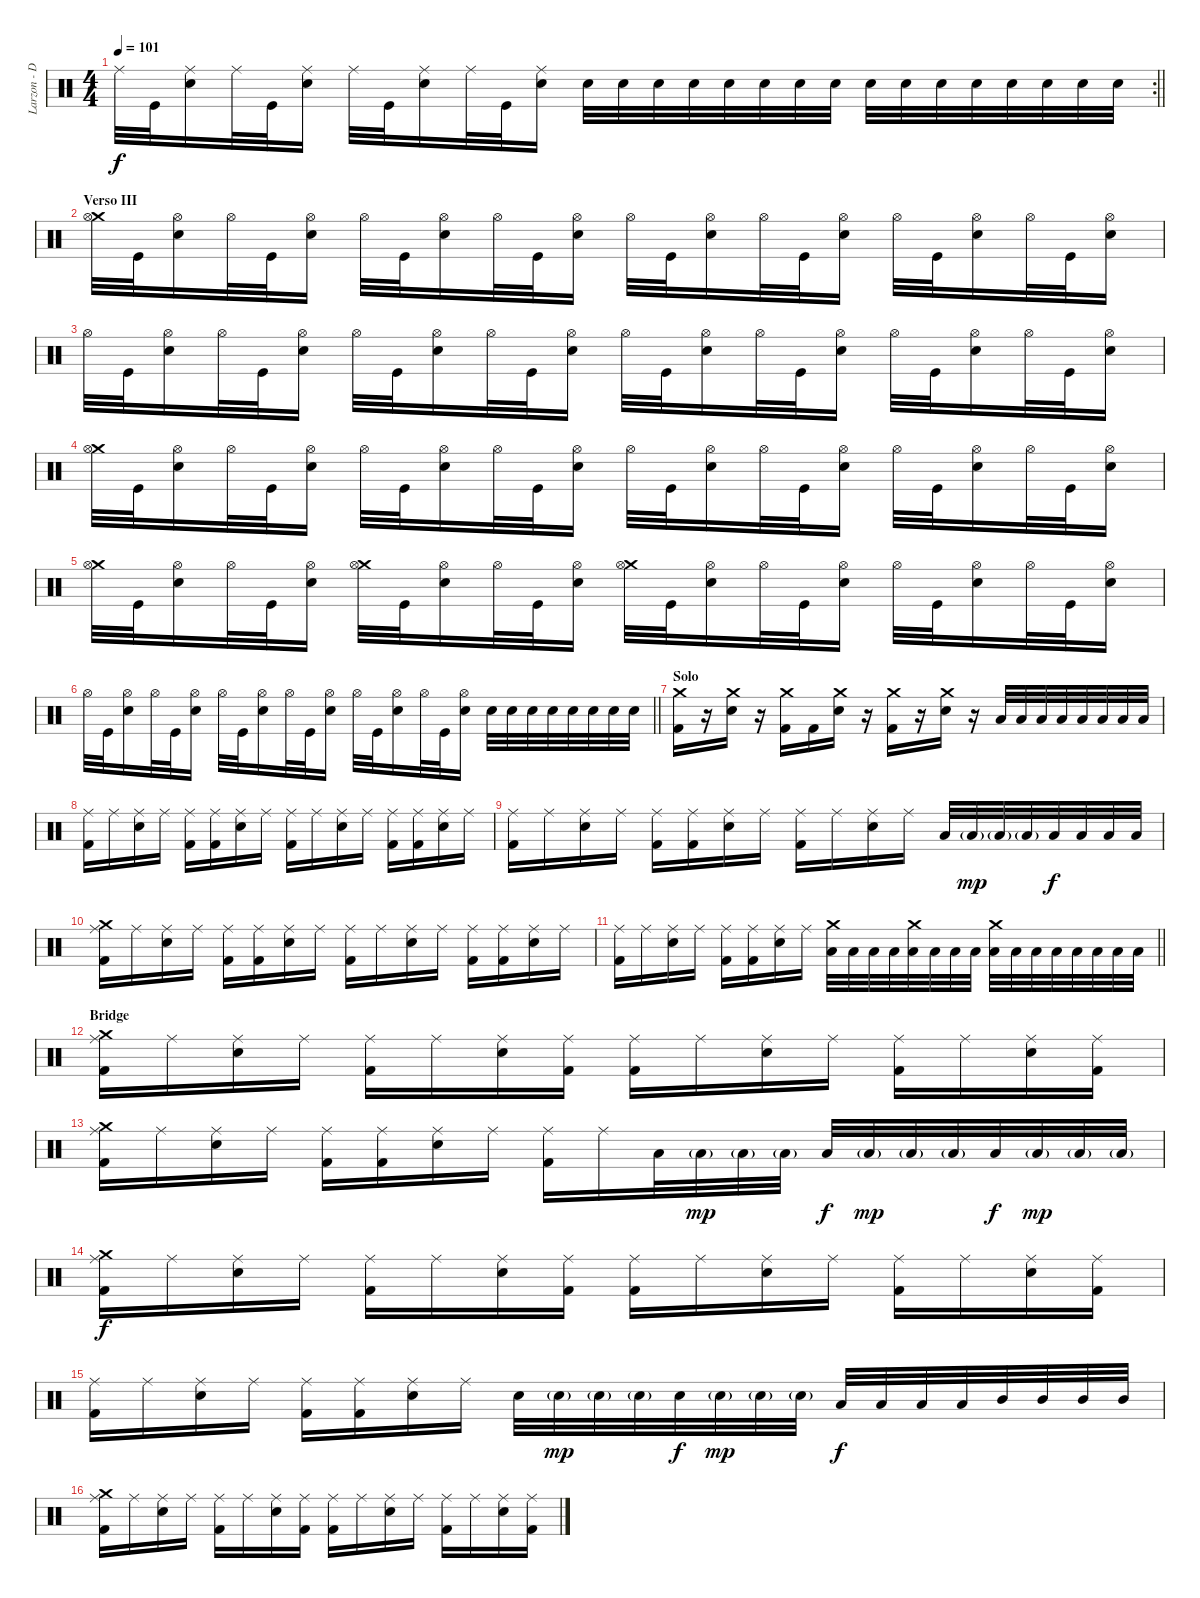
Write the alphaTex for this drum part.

\track ("Larzon - Drums" "Larzon - D") {instrument percussion}
\staff {score}
\articulation defaults
\rc 2
\ts (4 4)
\tempo 101
\clef neutral
\barLineRight lightlight
\ks c "Ride (middle)".32{dy f} "Kick (hit)".32
("Electric Snare (hit)" "Ride (middle)").16 "Ride (middle)".32 "Kick (hit)".32 ("Electric Snare (hit)" "Ride (middle)").16 "Ride (middle)".32 "Kick (hit)".32 ("Electric Snare (hit)" "Ride (middle)").16 "Ride (middle)".32 "Kick (hit)".32 ("Electric Snare (hit)" "Ride (middle)").16 "Electric Snare (hit)".32 "Electric Snare (hit)".32 "Electric Snare (hit)".32 "Electric Snare (hit)".32 "Electric Snare (hit)".32 "Electric Snare (hit)".32 "Electric Snare (hit)".32 "Electric Snare (hit)".32 "Electric Snare (hit)".32 "Electric Snare (hit)".32 "Electric Snare (hit)".32 "Electric Snare (hit)".32 "Electric Snare (hit)".32 "Electric Snare (hit)".32 "Electric Snare (hit)".32 "Electric Snare (hit)".32 |
\section ("" "Verso III")
("Crash medium (hit)" "Hi-Hat (open)").32 "Kick (hit)".32 ("Electric Snare (hit)" "Hi-Hat (open)").16 "Hi-Hat (open)".32 "Kick (hit)".32 ("Electric Snare (hit)" "Hi-Hat (open)").16 "Hi-Hat (open)".32 "Kick (hit)".32 ("Electric Snare (hit)" "Hi-Hat (open)").16 "Hi-Hat (open)".32 "Kick (hit)".32 ("Electric Snare (hit)" "Hi-Hat (open)").16 "Hi-Hat (open)".32 "Kick (hit)".32 ("Electric Snare (hit)" "Hi-Hat (open)").16 "Hi-Hat (open)".32 "Kick (hit)".32 ("Electric Snare (hit)" "Hi-Hat (open)").16 "Hi-Hat (open)".32 "Kick (hit)".32 ("Electric Snare (hit)" "Hi-Hat (open)").16 "Hi-Hat (open)".32 "Kick (hit)".32 ("Electric Snare (hit)" "Hi-Hat (open)").16 |
"Hi-Hat (open)".32 "Kick (hit)".32 ("Electric Snare (hit)" "Hi-Hat (open)").16 "Hi-Hat (open)".32 "Kick (hit)".32 ("Electric Snare (hit)" "Hi-Hat (open)").16 "Hi-Hat (open)".32 "Kick (hit)".32 ("Electric Snare (hit)" "Hi-Hat (open)").16 "Hi-Hat (open)".32 "Kick (hit)".32 ("Electric Snare (hit)" "Hi-Hat (open)").16 "Hi-Hat (open)".32 "Kick (hit)".32 ("Electric Snare (hit)" "Hi-Hat (open)").16 "Hi-Hat (open)".32 "Kick (hit)".32 ("Electric Snare (hit)" "Hi-Hat (open)").16 "Hi-Hat (open)".32 "Kick (hit)".32 ("Electric Snare (hit)" "Hi-Hat (open)").16 "Hi-Hat (open)".32 "Kick (hit)".32 ("Electric Snare (hit)" "Hi-Hat (open)").16 |
("Crash medium (hit)" "Hi-Hat (open)").32 "Kick (hit)".32 ("Electric Snare (hit)" "Hi-Hat (open)").16 "Hi-Hat (open)".32 "Kick (hit)".32 ("Electric Snare (hit)" "Hi-Hat (open)").16 "Hi-Hat (open)".32 "Kick (hit)".32 ("Electric Snare (hit)" "Hi-Hat (open)").16 "Hi-Hat (open)".32 "Kick (hit)".32 ("Electric Snare (hit)" "Hi-Hat (open)").16 "Hi-Hat (open)".32 "Kick (hit)".32 ("Electric Snare (hit)" "Hi-Hat (open)").16 "Hi-Hat (open)".32 "Kick (hit)".32 ("Electric Snare (hit)" "Hi-Hat (open)").16 "Hi-Hat (open)".32 "Kick (hit)".32 ("Electric Snare (hit)" "Hi-Hat (open)").16 "Hi-Hat (open)".32 "Kick (hit)".32 ("Electric Snare (hit)" "Hi-Hat (open)").16 |
("Crash medium (hit)" "Hi-Hat (open)").32 "Kick (hit)".32 ("Electric Snare (hit)" "Hi-Hat (open)").16 "Hi-Hat (open)".32 "Kick (hit)".32 ("Electric Snare (hit)" "Hi-Hat (open)").16 ("Crash medium (hit)" "Hi-Hat (open)").32 "Kick (hit)".32 ("Electric Snare (hit)" "Hi-Hat (open)").16 "Hi-Hat (open)".32 "Kick (hit)".32 ("Electric Snare (hit)" "Hi-Hat (open)").16 ("Crash medium (hit)" "Hi-Hat (open)").32 "Kick (hit)".32 ("Electric Snare (hit)" "Hi-Hat (open)").16 "Hi-Hat (open)".32 "Kick (hit)".32 ("Electric Snare (hit)" "Hi-Hat (open)").16 "Hi-Hat (open)".32 "Kick (hit)".32 ("Electric Snare (hit)" "Hi-Hat (open)").16 "Hi-Hat (open)".32 "Kick (hit)".32 ("Electric Snare (hit)" "Hi-Hat (open)").16 |
\barLineRight lightlight "Hi-Hat (open)".32 "Kick (hit)".32
("Electric Snare (hit)" "Hi-Hat (open)").16 "Hi-Hat (open)".32 "Kick (hit)".32 ("Electric Snare (hit)" "Hi-Hat (open)").16 "Hi-Hat (open)".32 "Kick (hit)".32 ("Electric Snare (hit)" "Hi-Hat (open)").16 "Hi-Hat (open)".32 "Kick (hit)".32 ("Electric Snare (hit)" "Hi-Hat (open)").16 "Hi-Hat (open)".32 "Kick (hit)".32 ("Electric Snare (hit)" "Hi-Hat (open)").16 "Hi-Hat (open)".32 "Kick (hit)".32 ("Electric Snare (hit)" "Hi-Hat (open)").16 "Electric Snare (hit)".32 "Electric Snare (hit)".32 "Electric Snare (hit)".32 "Electric Snare (hit)".32 "Electric Snare (hit)".32 "Electric Snare (hit)".32 "Electric Snare (hit)".32 "Electric Snare (hit)".32 |
\section ("" "Solo")
("Kick (hit) 2" "Crash medium (hit)").16 r.16 ("Electric Snare (hit)" "Crash medium (hit)").16 r.16 ("Kick (hit) 2" "Crash medium (hit)").16 "Kick (hit) 2".16 ("Electric Snare (hit)" "Crash medium (hit)").16 r.16 ("Kick (hit) 2" "Crash medium (hit)").16 r.16 ("Electric Snare (hit)" "Crash medium (hit)").16 r.16 "Low Tom (hit)".32 "Low Tom (hit)".32 "Low Tom (hit)".32 "Low Tom (hit)".32 "Low Tom (hit)".32 "Low Tom (hit)".32 "Low Tom (hit)".32 "Low Tom (hit)".32 |
("Kick (hit) 2" "Ride (middle)").16 "Ride (middle)".16 ("Electric Snare (hit)" "Ride (middle)").16 "Ride (middle)".16 ("Kick (hit) 2" "Ride (middle)").16 ("Kick (hit) 2" "Ride (middle)").16 ("Electric Snare (hit)" "Ride (middle)").16 "Ride (middle)".16 ("Kick (hit) 2" "Ride (middle)").16 "Ride (middle)".16 ("Electric Snare (hit)" "Ride (middle)").16 "Ride (middle)".16 ("Kick (hit) 2" "Ride (middle)").16 ("Kick (hit) 2" "Ride (middle)").16 ("Electric Snare (hit)" "Ride (middle)").16 "Ride (middle)".16 |
("Kick (hit) 2" "Ride (middle)").16 "Ride (middle)".16 ("Electric Snare (hit)" "Ride (middle)").16 "Ride (middle)".16 ("Kick (hit) 2" "Ride (middle)").16 ("Kick (hit) 2" "Ride (middle)").16 ("Electric Snare (hit)" "Ride (middle)").16 "Ride (middle)".16 ("Kick (hit) 2" "Ride (middle)").16 "Ride (middle)".16 ("Electric Snare (hit)" "Ride (middle)").16 "Ride (middle)".16 "Low Tom (hit)".32 "Low Tom (hit)"{g}.32{dy mp} "Low Tom (hit)"{g}.32 "Low Tom (hit)"{g}.32 "Low Tom (hit)".32{dy f} "Low Tom (hit)".32 "Low Tom (hit)".32 "Low Tom (hit)".32 |
("Kick (hit) 2" "Crash medium (hit)" "Ride (middle)").16 "Ride (middle)".16 ("Electric Snare (hit)" "Ride (middle)").16 "Ride (middle)".16 ("Kick (hit) 2" "Ride (middle)").16 ("Kick (hit) 2" "Ride (middle)").16 ("Electric Snare (hit)" "Ride (middle)").16 "Ride (middle)".16 ("Kick (hit) 2" "Ride (middle)").16 "Ride (middle)".16 ("Electric Snare (hit)" "Ride (middle)").16 "Ride (middle)".16 ("Kick (hit) 2" "Ride (middle)").16 ("Kick (hit) 2" "Ride (middle)").16 ("Electric Snare (hit)" "Ride (middle)").16 "Ride (middle)".16 |
\barLineRight lightlight
("Kick (hit) 2" "Ride (middle)").16 "Ride (middle)".16 ("Electric Snare (hit)" "Ride (middle)").16 "Ride (middle)".16 ("Kick (hit) 2" "Ride (middle)").16 ("Kick (hit) 2" "Ride (middle)").16 ("Electric Snare (hit)" "Ride (middle)").16 "Ride (middle)".16 ("Low Tom (hit)" "Crash medium (hit)").32 "Low Tom (hit)".32 "Low Tom (hit)".32 "Low Tom (hit)".32 ("Low Tom (hit)" "Crash medium (hit)").32 "Low Tom (hit)".32 "Low Tom (hit)".32 "Low Tom (hit)".32 ("Low Tom (hit)" "Crash medium (hit)").32 "Low Tom (hit)".32 "Low Tom (hit)".32 "Low Tom (hit)".32 "Low Tom (hit)".32 "Low Tom (hit)".32 "Low Tom (hit)".32 "Low Tom (hit)".32 |
\section ("" "Bridge")
("Kick (hit) 2" "Crash medium (hit)" "Ride (middle)").16 "Ride (middle)".16 ("Electric Snare (hit)" "Ride (middle)").16 "Ride (middle)".16 ("Kick (hit) 2" "Ride (middle)").16 "Ride (middle)".16 ("Electric Snare (hit)" "Ride (middle)").16 ("Kick (hit) 2" "Ride (middle)").16 ("Kick (hit) 2" "Ride (middle)").16 "Ride (middle)".16 ("Electric Snare (hit)" "Ride (middle)").16 "Ride (middle)".16 ("Kick (hit) 2" "Ride (middle)").16 "Ride (middle)".16 ("Electric Snare (hit)" "Ride (middle)").16 ("Kick (hit) 2" "Ride (middle)").16 |
("Kick (hit) 2" "Crash medium (hit)" "Ride (middle)").16 "Ride (middle)".16 ("Electric Snare (hit)" "Ride (middle)").16 "Ride (middle)".16 ("Kick (hit) 2" "Ride (middle)").16 ("Kick (hit) 2" "Ride (middle)").16 ("Electric Snare (hit)" "Ride (middle)").16 "Ride (middle)".16 ("Kick (hit) 2" "Ride (middle)").16 "Ride (middle)".16 "Low Tom (hit)".32 "Low Tom (hit)"{g}.32{dy mp} "Low Tom (hit)"{g}.32 "Low Tom (hit)"{g}.32 "Low Tom (hit)".32{dy f} "Low Tom (hit)"{g}.32{dy mp} "Low Tom (hit)"{g}.32 "Low Tom (hit)"{g}.32 "Low Tom (hit)".32{dy f} "Low Tom (hit)"{g}.32{dy mp} "Low Tom (hit)"{g}.32 "Low Tom (hit)"{g}.32 |
("Kick (hit) 2" "Crash medium (hit)" "Ride (middle)").16{dy f} "Ride (middle)".16 ("Electric Snare (hit)" "Ride (middle)").16 "Ride (middle)".16 ("Kick (hit) 2" "Ride (middle)").16 "Ride (middle)".16 ("Electric Snare (hit)" "Ride (middle)").16 ("Kick (hit) 2" "Ride (middle)").16 ("Kick (hit) 2" "Ride (middle)").16 "Ride (middle)".16 ("Electric Snare (hit)" "Ride (middle)").16 "Ride (middle)".16 ("Kick (hit) 2" "Ride (middle)").16 "Ride (middle)".16 ("Electric Snare (hit)" "Ride (middle)").16 ("Kick (hit) 2" "Ride (middle)").16 |
("Kick (hit) 2" "Ride (middle)").16 "Ride (middle)".16 ("Electric Snare (hit)" "Ride (middle)").16 "Ride (middle)".16 ("Kick (hit) 2" "Ride (middle)").16 ("Kick (hit) 2" "Ride (middle)").16 ("Electric Snare (hit)" "Ride (middle)").16 "Ride (middle)".16 "Electric Snare (hit)".32 "Electric Snare (hit)"{g}.32{dy mp} "Electric Snare (hit)"{g}.32 "Electric Snare (hit)"{g}.32 "Electric Snare (hit)".32{dy f} "Electric Snare (hit)"{g}.32{dy mp} "Electric Snare (hit)"{g}.32 "Electric Snare (hit)"{g}.32 "Low Tom (hit)".32{dy f} "Low Tom (hit)".32 "Low Tom (hit)".32 "Low Tom (hit)".32 "Mid Tom (hit)".32 "Mid Tom (hit)".32 "Mid Tom (hit)".32 "Mid Tom (hit)".32 |
("Kick (hit) 2" "Crash medium (hit)" "Ride (middle)").16 "Ride (middle)".16 ("Electric Snare (hit)" "Ride (middle)").16 "Ride (middle)".16 ("Kick (hit) 2" "Ride (middle)").16 "Ride (middle)".16 ("Electric Snare (hit)" "Ride (middle)").16 ("Kick (hit) 2" "Ride (middle)").16 ("Kick (hit) 2" "Ride (middle)").16 "Ride (middle)".16 ("Electric Snare (hit)" "Ride (middle)").16 "Ride (middle)".16 ("Kick (hit) 2" "Ride (middle)").16 "Ride (middle)".16 ("Electric Snare (hit)" "Ride (middle)").16 ("Kick (hit) 2" "Ride (middle)").16
